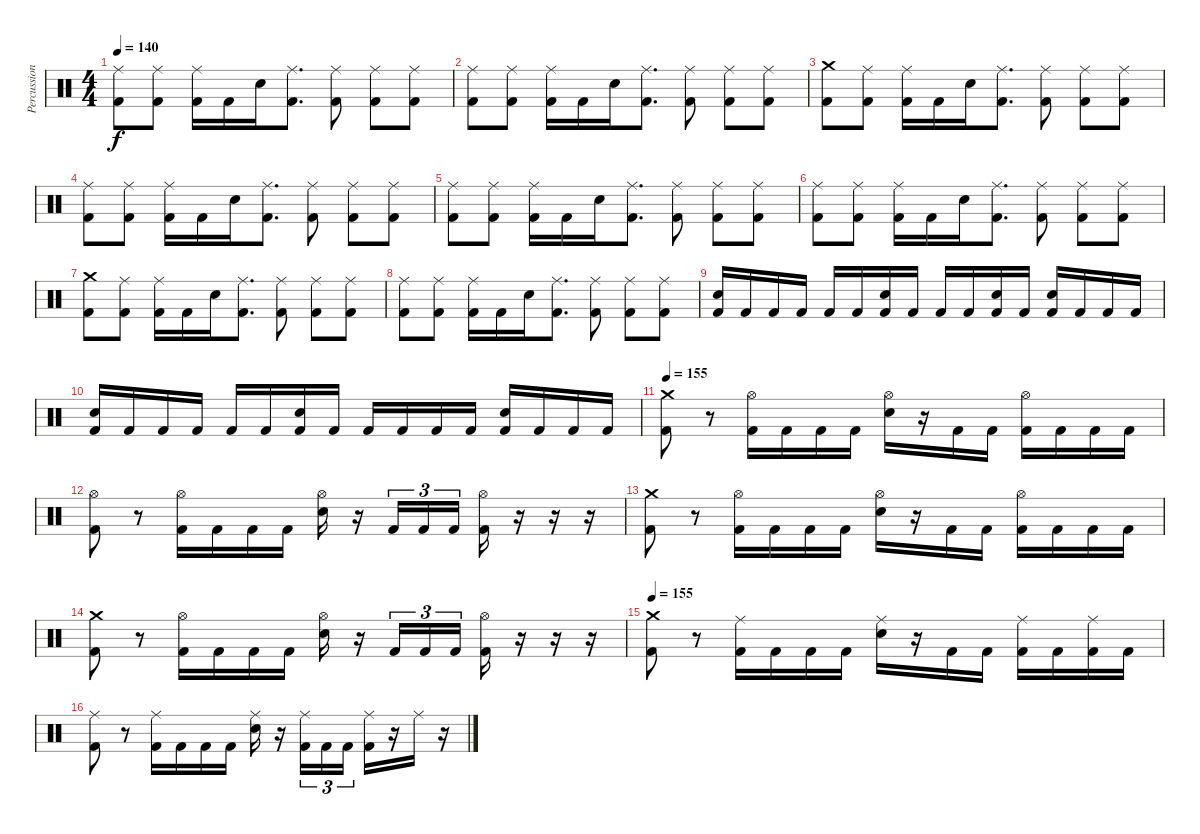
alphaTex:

\track ("Percussion" "Percussion") {instrument percussion}
\staff {score}
\articulation defaults
\ts (4 4)
\tempo 140
\clef neutral
\ks c
("Ride (middle)" "Kick (hit) 2").8{dy f} ("Ride (middle)" "Kick (hit) 2").8 ("Ride (middle)" "Kick (hit) 2").16 "Kick (hit) 2".16 "Electric Snare (hit)".16 ("Ride (middle)" "Kick (hit) 2").8{d} ("Ride (middle)" "Kick (hit) 2").8 ("Ride (middle)" "Kick (hit) 2").8 ("Ride (middle)" "Kick (hit) 2").8 |
("Ride (middle)" "Kick (hit) 2").8 ("Ride (middle)" "Kick (hit) 2").8 ("Ride (middle)" "Kick (hit) 2").16 "Kick (hit) 2".16 "Electric Snare (hit)".16 ("Ride (middle)" "Kick (hit) 2").8{d} ("Ride (middle)" "Kick (hit) 2").8 ("Ride (middle)" "Kick (hit) 2").8 ("Ride (middle)" "Kick (hit) 2").8 |
("Crash medium (hit)" "Kick (hit) 2").8 ("Ride (middle)" "Kick (hit) 2").8 ("Ride (middle)" "Kick (hit) 2").16 "Kick (hit) 2".16 "Electric Snare (hit)".16 ("Ride (middle)" "Kick (hit) 2").8{d} ("Ride (middle)" "Kick (hit) 2").8 ("Ride (middle)" "Kick (hit) 2").8 ("Ride (middle)" "Kick (hit) 2").8 |
("Ride (middle)" "Kick (hit) 2").8 ("Ride (middle)" "Kick (hit) 2").8 ("Ride (middle)" "Kick (hit) 2").16 "Kick (hit) 2".16 "Electric Snare (hit)".16 ("Ride (middle)" "Kick (hit) 2").8{d} ("Ride (middle)" "Kick (hit) 2").8 ("Ride (middle)" "Kick (hit) 2").8 ("Ride (middle)" "Kick (hit) 2").8 |
("Ride (middle)" "Kick (hit) 2").8 ("Ride (middle)" "Kick (hit) 2").8 ("Ride (middle)" "Kick (hit) 2").16 "Kick (hit) 2".16 "Electric Snare (hit)".16 ("Ride (middle)" "Kick (hit) 2").8{d} ("Ride (middle)" "Kick (hit) 2").8 ("Ride (middle)" "Kick (hit) 2").8 ("Ride (middle)" "Kick (hit) 2").8 |
("Ride (middle)" "Kick (hit) 2").8 ("Ride (middle)" "Kick (hit) 2").8 ("Ride (middle)" "Kick (hit) 2").16 "Kick (hit) 2".16 "Electric Snare (hit)".16 ("Ride (middle)" "Kick (hit) 2").8{d} ("Ride (middle)" "Kick (hit) 2").8 ("Ride (middle)" "Kick (hit) 2").8 ("Ride (middle)" "Kick (hit) 2").8 |
("Crash medium (hit)" "Kick (hit) 2").8 ("Ride (middle)" "Kick (hit) 2").8 ("Ride (middle)" "Kick (hit) 2").16 "Kick (hit) 2".16 "Electric Snare (hit)".16 ("Ride (middle)" "Kick (hit) 2").8{d} ("Ride (middle)" "Kick (hit) 2").8 ("Ride (middle)" "Kick (hit) 2").8 ("Ride (middle)" "Kick (hit) 2").8 |
("Ride (middle)" "Kick (hit) 2").8 ("Ride (middle)" "Kick (hit) 2").8 ("Ride (middle)" "Kick (hit) 2").16 "Kick (hit) 2".16 "Electric Snare (hit)".16 ("Ride (middle)" "Kick (hit) 2").8{d} ("Ride (middle)" "Kick (hit) 2").8 ("Ride (middle)" "Kick (hit) 2").8 ("Ride (middle)" "Kick (hit) 2").8 |
("Electric Snare (hit)" "Kick (hit) 2").16 "Kick (hit) 2".16 "Kick (hit) 2".16 "Kick (hit) 2".16 "Kick (hit) 2".16 "Kick (hit) 2".16 ("Electric Snare (hit)" "Kick (hit) 2").16 "Kick (hit) 2".16 "Kick (hit) 2".16 "Kick (hit) 2".16 ("Electric Snare (hit)" "Kick (hit) 2").16 "Kick (hit) 2".16 ("Electric Snare (hit)" "Kick (hit) 2").16 "Kick (hit) 2".16 "Kick (hit) 2".16 "Kick (hit) 2".16 |
("Electric Snare (hit)" "Kick (hit) 2").16 "Kick (hit) 2".16 "Kick (hit) 2".16 "Kick (hit) 2".16 "Kick (hit) 2".16 "Kick (hit) 2".16 ("Electric Snare (hit)" "Kick (hit) 2").16 "Kick (hit) 2".16 "Kick (hit) 2".16 "Kick (hit) 2".16 "Kick (hit) 2".16 "Kick (hit) 2".16 ("Electric Snare (hit)" "Kick (hit) 2").16 "Kick (hit) 2".16 "Kick (hit) 2".16 "Kick (hit) 2".16 |
\tempo 155
("Crash medium (hit)" "Kick (hit) 2").8 r.8 ("Hi-Hat (open)" "Kick (hit) 2").16 "Kick (hit) 2".16 "Kick (hit) 2".16 "Kick (hit) 2".16 ("Hi-Hat (open)" "Electric Snare (hit)").16 r.16 "Kick (hit) 2".16 "Kick (hit) 2".16 ("Hi-Hat (open)" "Kick (hit) 2").16 "Kick (hit) 2".16 "Kick (hit) 2".16 "Kick (hit) 2".16 |
("Hi-Hat (open)" "Kick (hit) 2").8 r.8 ("Hi-Hat (open)" "Kick (hit) 2").16 "Kick (hit) 2".16 "Kick (hit) 2".16 "Kick (hit) 2".16 ("Hi-Hat (open)" "Electric Snare (hit)").16 r.16 "Kick (hit) 2".16{tu (3 2)} "Kick (hit) 2".16{tu (3 2)} "Kick (hit) 2".16{tu (3 2)} ("Hi-Hat (open)" "Kick (hit) 2").16 r.16 r.16 r.16 |
("Crash medium (hit)" "Kick (hit) 2").8 r.8 ("Hi-Hat (open)" "Kick (hit) 2").16 "Kick (hit) 2".16 "Kick (hit) 2".16 "Kick (hit) 2".16 ("Hi-Hat (open)" "Electric Snare (hit)").16 r.16 "Kick (hit) 2".16 "Kick (hit) 2".16 ("Hi-Hat (open)" "Kick (hit) 2").16 "Kick (hit) 2".16 "Kick (hit) 2".16 "Kick (hit) 2".16 |
("Crash medium (hit)" "Kick (hit) 2").8 r.8 ("Hi-Hat (open)" "Kick (hit) 2").16 "Kick (hit) 2".16 "Kick (hit) 2".16 "Kick (hit) 2".16 ("Hi-Hat (open)" "Electric Snare (hit)").16 r.16 "Kick (hit) 2".16{tu (3 2)} "Kick (hit) 2".16{tu (3 2)} "Kick (hit) 2".16{tu (3 2)} ("Hi-Hat (open)" "Kick (hit) 2").16 r.16 r.16 r.16 |
\tempo 155
("Crash medium (hit)" "Kick (hit) 2").8 r.8 ("Ride (middle)" "Kick (hit) 2").16 "Kick (hit) 2".16 "Kick (hit) 2".16 "Kick (hit) 2".16 ("Ride (middle)" "Electric Snare (hit)").16 r.16 "Kick (hit) 2".16 "Kick (hit) 2".16 ("Ride (middle)" "Kick (hit) 2").16 "Kick (hit) 2".16 ("Ride (middle)" "Kick (hit) 2").16 "Kick (hit) 2".16 |
("Ride (middle)" "Kick (hit) 2").8 r.8 ("Ride (middle)" "Kick (hit) 2").16 "Kick (hit) 2".16 "Kick (hit) 2".16 "Kick (hit) 2".16 ("Ride (middle)" "Electric Snare (hit)").16 r.16 ("Ride (middle)" "Kick (hit) 2").16{tu (3 2)} "Kick (hit) 2".16{tu (3 2)} "Kick (hit) 2".16{tu (3 2)} ("Ride (middle)" "Kick (hit) 2").16 r.16 "Ride (middle)".16 r.16
